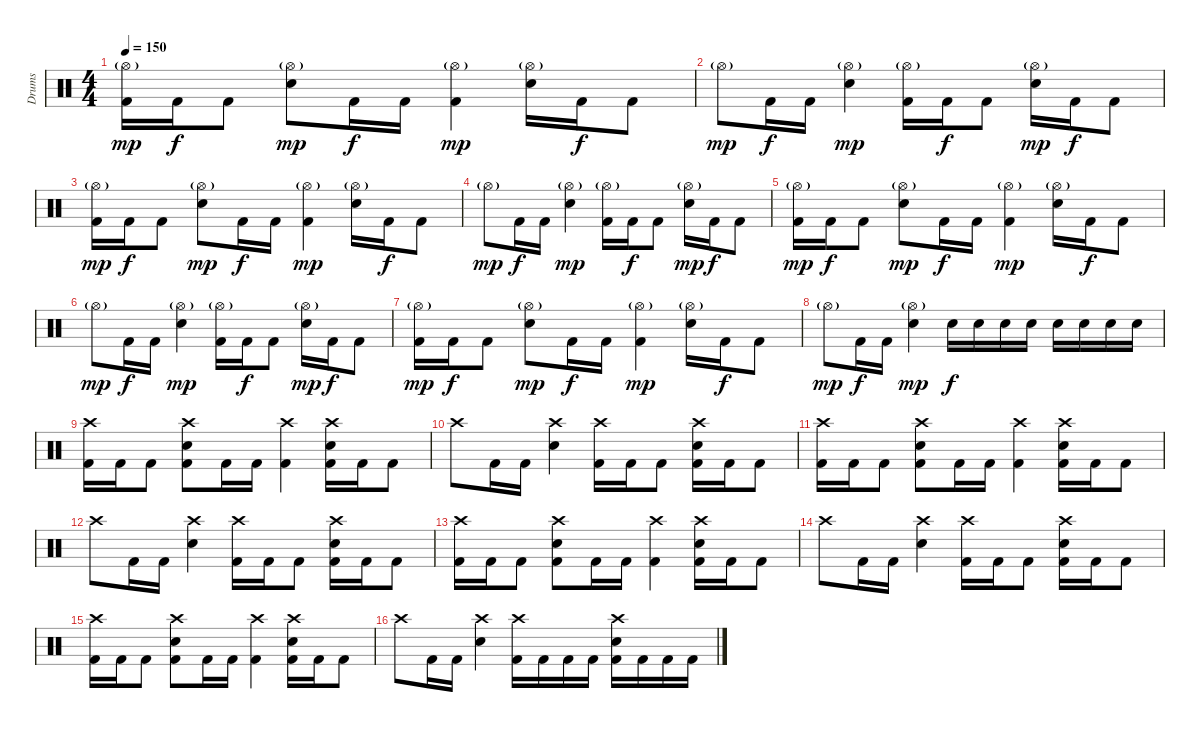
\track ("Drums" "Drums") {instrument percussion}
\staff {score}
\articulation defaults
\ts (4 4)
\tempo 150
\clef neutral
\ks c
("Hi-Hat (open)"{g} "Kick (hit) 2").16{dy mp} "Kick (hit) 2".16{dy f} "Kick (hit) 2".8 ("Hi-Hat (open)"{g} "Electric Snare (hit)").8{dy mp} "Kick (hit) 2".16{dy f} "Kick (hit) 2".16 ("Hi-Hat (open)"{g} "Kick (hit) 2").4{dy mp} ("Hi-Hat (open)"{g} "Electric Snare (hit)").16 "Kick (hit) 2".16{dy f} "Kick (hit) 2".8 |
"Hi-Hat (open)"{g}.8{dy mp} "Kick (hit) 2".16{dy f} "Kick (hit) 2".16 ("Hi-Hat (open)"{g} "Electric Snare (hit)").4{dy mp} ("Hi-Hat (open)"{g} "Kick (hit) 2").16 "Kick (hit) 2".16{dy f} "Kick (hit) 2".8 ("Hi-Hat (open)"{g} "Electric Snare (hit)").16{dy mp} "Kick (hit) 2".16{dy f} "Kick (hit) 2".8 |
("Hi-Hat (open)"{g} "Kick (hit) 2").16{dy mp} "Kick (hit) 2".16{dy f} "Kick (hit) 2".8 ("Hi-Hat (open)"{g} "Electric Snare (hit)").8{dy mp} "Kick (hit) 2".16{dy f} "Kick (hit) 2".16 ("Hi-Hat (open)"{g} "Kick (hit) 2").4{dy mp} ("Hi-Hat (open)"{g} "Electric Snare (hit)").16 "Kick (hit) 2".16{dy f} "Kick (hit) 2".8 |
"Hi-Hat (open)"{g}.8{dy mp} "Kick (hit) 2".16{dy f} "Kick (hit) 2".16 ("Hi-Hat (open)"{g} "Electric Snare (hit)").4{dy mp} ("Hi-Hat (open)"{g} "Kick (hit) 2").16 "Kick (hit) 2".16{dy f} "Kick (hit) 2".8 ("Hi-Hat (open)"{g} "Electric Snare (hit)").16{dy mp} "Kick (hit) 2".16{dy f} "Kick (hit) 2".8 |
("Hi-Hat (open)"{g} "Kick (hit) 2").16{dy mp} "Kick (hit) 2".16{dy f} "Kick (hit) 2".8 ("Hi-Hat (open)"{g} "Electric Snare (hit)").8{dy mp} "Kick (hit) 2".16{dy f} "Kick (hit) 2".16 ("Hi-Hat (open)"{g} "Kick (hit) 2").4{dy mp} ("Hi-Hat (open)"{g} "Electric Snare (hit)").16 "Kick (hit) 2".16{dy f} "Kick (hit) 2".8 |
"Hi-Hat (open)"{g}.8{dy mp} "Kick (hit) 2".16{dy f} "Kick (hit) 2".16 ("Hi-Hat (open)"{g} "Electric Snare (hit)").4{dy mp} ("Hi-Hat (open)"{g} "Kick (hit) 2").16 "Kick (hit) 2".16{dy f} "Kick (hit) 2".8 ("Hi-Hat (open)"{g} "Electric Snare (hit)").16{dy mp} "Kick (hit) 2".16{dy f} "Kick (hit) 2".8 |
("Hi-Hat (open)"{g} "Kick (hit) 2").16{dy mp} "Kick (hit) 2".16{dy f} "Kick (hit) 2".8 ("Hi-Hat (open)"{g} "Electric Snare (hit)").8{dy mp} "Kick (hit) 2".16{dy f} "Kick (hit) 2".16 ("Hi-Hat (open)"{g} "Kick (hit) 2").4{dy mp} ("Hi-Hat (open)"{g} "Electric Snare (hit)").16 "Kick (hit) 2".16{dy f} "Kick (hit) 2".8 |
"Hi-Hat (open)"{g}.8{dy mp} "Kick (hit) 2".16{dy f} "Kick (hit) 2".16 ("Hi-Hat (open)"{g} "Electric Snare (hit)").4{dy mp} "Electric Snare (hit)".16{dy f} "Electric Snare (hit)".16 "Electric Snare (hit)".16 "Electric Snare (hit)".16 "Electric Snare (hit)".16 "Electric Snare (hit)".16 "Electric Snare (hit)".16 "Electric Snare (hit)".16 |
("Crash high (hit)" "Kick (hit) 2").16 "Kick (hit) 2".16 "Kick (hit) 2".8 ("Kick (hit) 2" "Crash high (hit)" "Electric Snare (hit)").8 "Kick (hit) 2".16 "Kick (hit) 2".16 ("Crash high (hit)" "Kick (hit) 2").4 ("Kick (hit) 2" "Crash high (hit)" "Electric Snare (hit)").16 "Kick (hit) 2".16 "Kick (hit) 2".8 |
"Crash high (hit)".8 "Kick (hit) 2".16 "Kick (hit) 2".16 ("Crash high (hit)" "Electric Snare (hit)").4 ("Crash high (hit)" "Kick (hit) 2").16 "Kick (hit) 2".16 "Kick (hit) 2".8 ("Kick (hit) 2" "Crash high (hit)" "Electric Snare (hit)").16 "Kick (hit) 2".16 "Kick (hit) 2".8 |
("Crash high (hit)" "Kick (hit) 2").16 "Kick (hit) 2".16 "Kick (hit) 2".8 ("Kick (hit) 2" "Crash high (hit)" "Electric Snare (hit)").8 "Kick (hit) 2".16 "Kick (hit) 2".16 ("Crash high (hit)" "Kick (hit) 2").4 ("Kick (hit) 2" "Crash high (hit)" "Electric Snare (hit)").16 "Kick (hit) 2".16 "Kick (hit) 2".8 |
"Crash high (hit)".8 "Kick (hit) 2".16 "Kick (hit) 2".16 ("Crash high (hit)" "Electric Snare (hit)").4 ("Crash high (hit)" "Kick (hit) 2").16 "Kick (hit) 2".16 "Kick (hit) 2".8 ("Kick (hit) 2" "Crash high (hit)" "Electric Snare (hit)").16 "Kick (hit) 2".16 "Kick (hit) 2".8 |
("Crash high (hit)" "Kick (hit) 2").16 "Kick (hit) 2".16 "Kick (hit) 2".8 ("Kick (hit) 2" "Crash high (hit)" "Electric Snare (hit)").8 "Kick (hit) 2".16 "Kick (hit) 2".16 ("Crash high (hit)" "Kick (hit) 2").4 ("Kick (hit) 2" "Crash high (hit)" "Electric Snare (hit)").16 "Kick (hit) 2".16 "Kick (hit) 2".8 |
"Crash high (hit)".8 "Kick (hit) 2".16 "Kick (hit) 2".16 ("Crash high (hit)" "Electric Snare (hit)").4 ("Crash high (hit)" "Kick (hit) 2").16 "Kick (hit) 2".16 "Kick (hit) 2".8 ("Kick (hit) 2" "Crash high (hit)" "Electric Snare (hit)").16 "Kick (hit) 2".16 "Kick (hit) 2".8 |
("Crash high (hit)" "Kick (hit) 2").16 "Kick (hit) 2".16 "Kick (hit) 2".8 ("Kick (hit) 2" "Crash high (hit)" "Electric Snare (hit)").8 "Kick (hit) 2".16 "Kick (hit) 2".16 ("Crash high (hit)" "Kick (hit) 2").4 ("Kick (hit) 2" "Crash high (hit)" "Electric Snare (hit)").16 "Kick (hit) 2".16 "Kick (hit) 2".8 |
"Crash high (hit)".8 "Kick (hit) 2".16 "Kick (hit) 2".16 ("Crash high (hit)" "Electric Snare (hit)").4 ("Crash high (hit)" "Kick (hit) 2").16 "Kick (hit) 2".16 "Kick (hit) 2".16 "Kick (hit) 2".16 ("Crash high (hit)" "Electric Snare (hit)" "Kick (hit) 2").16 "Kick (hit) 2".16 "Kick (hit) 2".16 "Kick (hit) 2".16
